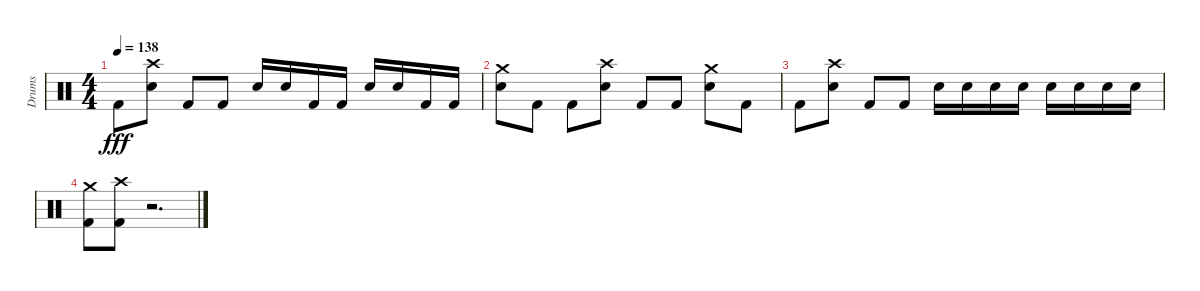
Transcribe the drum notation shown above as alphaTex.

\track ("Drums" "Drums") {instrument percussion}
\staff {score}
\articulation defaults
\ts (4 4)
\tempo 138
\clef neutral
\ks c "Kick (hit) 2".8{dy fff}
("Crash high (hit)" "Electric Snare (hit)").8 "Kick (hit) 2".8 "Kick (hit) 2".8 "Electric Snare (hit)".16 "Electric Snare (hit)".16 "Kick (hit) 2".16 "Kick (hit) 2".16 "Electric Snare (hit)".16 "Electric Snare (hit)".16 "Kick (hit) 2".16 "Kick (hit) 2".16 |
("Crash medium (hit)" "Electric Snare (hit)").8 "Kick (hit) 2".8 "Kick (hit) 2".8 ("Crash high (hit)" "Electric Snare (hit)").8 "Kick (hit) 2".8 "Kick (hit) 2".8 ("Crash medium (hit)" "Electric Snare (hit)").8 "Kick (hit) 2".8 |
"Kick (hit) 2".8 ("Crash high (hit)" "Electric Snare (hit)").8 "Kick (hit) 2".8 "Kick (hit) 2".8 "Electric Snare (hit)".16 "Electric Snare (hit)".16 "Electric Snare (hit)".16 "Electric Snare (hit)".16 "Electric Snare (hit)".16 "Electric Snare (hit)".16 "Electric Snare (hit)".16 "Electric Snare (hit)".16 |
("Crash medium (hit)" "Kick (hit) 2").8 ("Crash high (hit)" "Kick (hit) 2").8 r.2{d}
